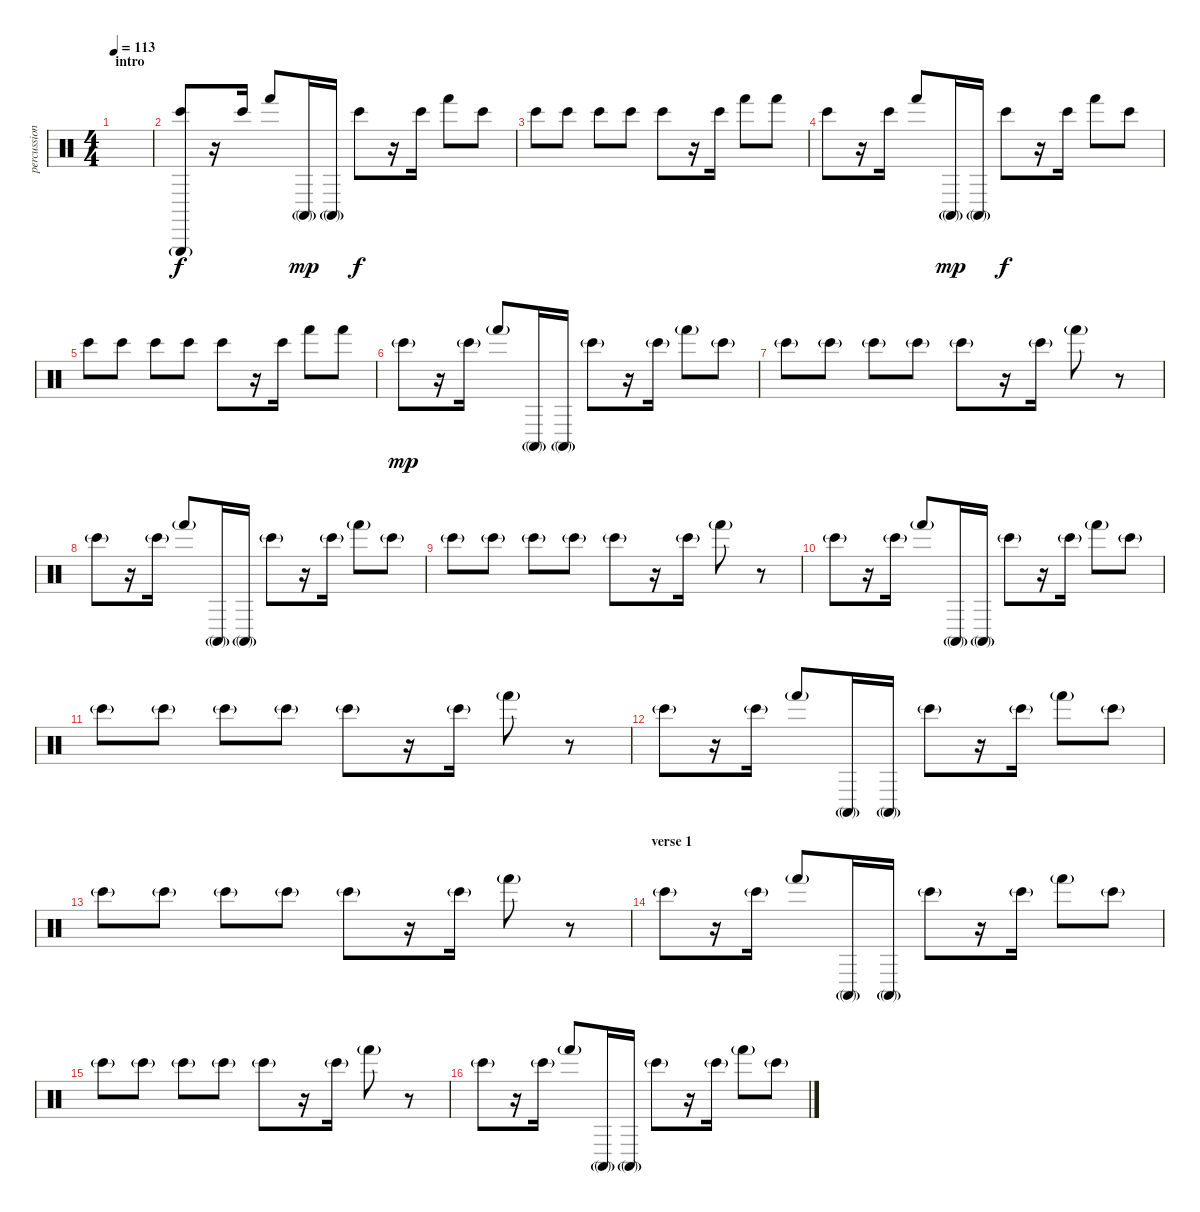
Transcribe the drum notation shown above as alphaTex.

\track ("percussion" "percussion") {instrument percussion}
\staff {score}
\articulation defaults
\ts (4 4)
\section ("" "intro")
\tempo 113
\clef neutral
\ks c
|
("Bongo High (hit)" "Triangle (hit)"{g}).8 r.16 "Bongo High (hit)".16{dy f} "Hand (hit)".8 "Conga high (mute)"{g}.16{dy mp} "Conga high (mute)"{g}.16 "Bongo High (hit)".8{dy f} r.16 "Bongo High (hit)".16 "Hand (hit)".8 "Bongo High (hit)".8 |
"Bongo High (hit)".8 "Bongo High (hit)".8 "Bongo High (hit)".8 "Bongo High (hit)".8 "Bongo High (hit)".8 r.16 "Bongo High (hit)".16 "Hand (hit)".8 "Hand (hit)".8 |
"Bongo High (hit)".8 r.16 "Bongo High (hit)".16 "Hand (hit)".8 "Conga high (mute)"{g}.16{dy mp} "Conga high (mute)"{g}.16 "Bongo High (hit)".8{dy f} r.16 "Bongo High (hit)".16 "Hand (hit)".8 "Bongo High (hit)".8 |
"Bongo High (hit)".8 "Bongo High (hit)".8 "Bongo High (hit)".8 "Bongo High (hit)".8 "Bongo High (hit)".8 r.16 "Bongo High (hit)".16 "Hand (hit)".8 "Hand (hit)".8 |
"Bongo High (hit)"{g}.8{dy mp} r.16 "Bongo High (hit)"{g}.16 "Hand (hit)"{g}.8 "Conga high (mute)"{g}.16 "Conga high (mute)"{g}.16 "Bongo High (hit)"{g}.8 r.16 "Bongo High (hit)"{g}.16 "Hand (hit)"{g}.8 "Bongo High (hit)"{g}.8 |
"Bongo High (hit)"{g}.8 "Bongo High (hit)"{g}.8 "Bongo High (hit)"{g}.8 "Bongo High (hit)"{g}.8 "Bongo High (hit)"{g}.8 r.16 "Bongo High (hit)"{g}.16 "Hand (hit)"{g}.8 r.8 |
"Bongo High (hit)"{g}.8 r.16 "Bongo High (hit)"{g}.16 "Hand (hit)"{g}.8 "Conga high (mute)"{g}.16 "Conga high (mute)"{g}.16 "Bongo High (hit)"{g}.8 r.16 "Bongo High (hit)"{g}.16 "Hand (hit)"{g}.8 "Bongo High (hit)"{g}.8 |
"Bongo High (hit)"{g}.8 "Bongo High (hit)"{g}.8 "Bongo High (hit)"{g}.8 "Bongo High (hit)"{g}.8 "Bongo High (hit)"{g}.8 r.16 "Bongo High (hit)"{g}.16 "Hand (hit)"{g}.8 r.8 |
"Bongo High (hit)"{g}.8 r.16 "Bongo High (hit)"{g}.16 "Hand (hit)"{g}.8 "Conga high (mute)"{g}.16 "Conga high (mute)"{g}.16 "Bongo High (hit)"{g}.8 r.16 "Bongo High (hit)"{g}.16 "Hand (hit)"{g}.8 "Bongo High (hit)"{g}.8 |
"Bongo High (hit)"{g}.8 "Bongo High (hit)"{g}.8 "Bongo High (hit)"{g}.8 "Bongo High (hit)"{g}.8 "Bongo High (hit)"{g}.8 r.16 "Bongo High (hit)"{g}.16 "Hand (hit)"{g}.8 r.8 |
"Bongo High (hit)"{g}.8 r.16 "Bongo High (hit)"{g}.16 "Hand (hit)"{g}.8 "Conga high (mute)"{g}.16 "Conga high (mute)"{g}.16 "Bongo High (hit)"{g}.8 r.16 "Bongo High (hit)"{g}.16 "Hand (hit)"{g}.8 "Bongo High (hit)"{g}.8 |
"Bongo High (hit)"{g}.8 "Bongo High (hit)"{g}.8 "Bongo High (hit)"{g}.8 "Bongo High (hit)"{g}.8 "Bongo High (hit)"{g}.8 r.16 "Bongo High (hit)"{g}.16 "Hand (hit)"{g}.8 r.8 |
\section ("" "verse 1")
"Bongo High (hit)"{g}.8 r.16 "Bongo High (hit)"{g}.16 "Hand (hit)"{g}.8 "Conga high (mute)"{g}.16 "Conga high (mute)"{g}.16 "Bongo High (hit)"{g}.8 r.16 "Bongo High (hit)"{g}.16 "Hand (hit)"{g}.8 "Bongo High (hit)"{g}.8 |
"Bongo High (hit)"{g}.8 "Bongo High (hit)"{g}.8 "Bongo High (hit)"{g}.8 "Bongo High (hit)"{g}.8 "Bongo High (hit)"{g}.8 r.16 "Bongo High (hit)"{g}.16 "Hand (hit)"{g}.8 r.8 |
"Bongo High (hit)"{g}.8 r.16 "Bongo High (hit)"{g}.16 "Hand (hit)"{g}.8 "Conga high (mute)"{g}.16 "Conga high (mute)"{g}.16 "Bongo High (hit)"{g}.8 r.16 "Bongo High (hit)"{g}.16 "Hand (hit)"{g}.8 "Bongo High (hit)"{g}.8
